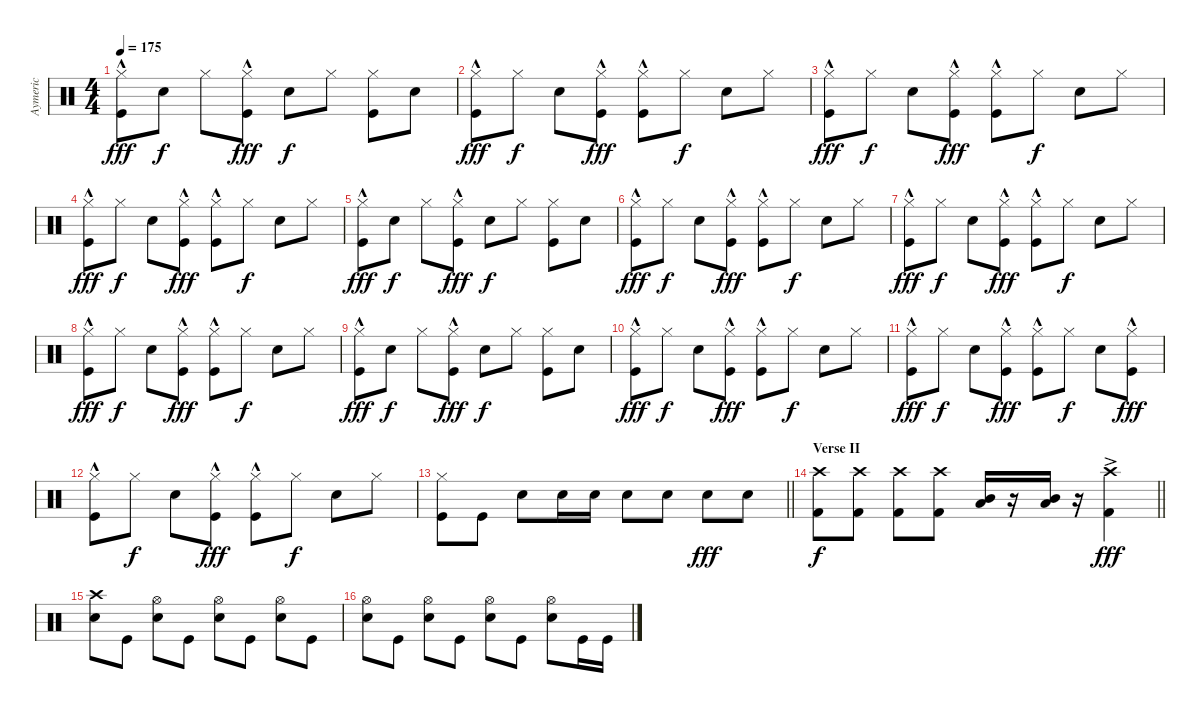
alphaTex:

\track ("Aymeric" "Aymeric") {instrument percussion}
\staff {score}
\articulation defaults
\ts (4 4)
\tempo 175
\clef neutral
\ks c
("Hi-Hat (closed)" "Kick (hit)"{hac}).8{dy fff} "Snare (hit) 2".8{dy f} "Hi-Hat (closed)".8 ("Hi-Hat (closed)" "Kick (hit)"{hac}).8{dy fff} "Snare (hit) 2".8{dy f} "Hi-Hat (closed)".8 ("Hi-Hat (closed)" "Kick (hit)").8 "Snare (hit) 2".8 |
("Hi-Hat (closed)" "Kick (hit)"{hac}).8{dy fff} "Hi-Hat (closed)".8{dy f} "Snare (hit) 2".8 ("Hi-Hat (closed)" "Kick (hit)"{hac}).8{dy fff} ("Hi-Hat (closed)" "Kick (hit)"{hac}).8 "Hi-Hat (closed)".8{dy f} "Snare (hit) 2".8 "Hi-Hat (closed)".8 |
("Hi-Hat (closed)" "Kick (hit)"{hac}).8{dy fff} "Hi-Hat (closed)".8{dy f} "Snare (hit) 2".8 ("Hi-Hat (closed)" "Kick (hit)"{hac}).8{dy fff} ("Hi-Hat (closed)" "Kick (hit)"{hac}).8 "Hi-Hat (closed)".8{dy f} "Snare (hit) 2".8 "Hi-Hat (closed)".8 |
("Hi-Hat (closed)" "Kick (hit)"{hac}).8{dy fff} "Hi-Hat (closed)".8{dy f} "Snare (hit) 2".8 ("Hi-Hat (closed)" "Kick (hit)"{hac}).8{dy fff} ("Hi-Hat (closed)" "Kick (hit)"{hac}).8 "Hi-Hat (closed)".8{dy f} "Snare (hit) 2".8 "Hi-Hat (closed)".8 |
("Hi-Hat (closed)" "Kick (hit)"{hac}).8{dy fff} "Snare (hit) 2".8{dy f} "Hi-Hat (closed)".8 ("Hi-Hat (closed)" "Kick (hit)"{hac}).8{dy fff} "Snare (hit) 2".8{dy f} "Hi-Hat (closed)".8 ("Hi-Hat (closed)" "Kick (hit)").8 "Snare (hit) 2".8 |
("Hi-Hat (closed)" "Kick (hit)"{hac}).8{dy fff} "Hi-Hat (closed)".8{dy f} "Snare (hit) 2".8 ("Hi-Hat (closed)" "Kick (hit)"{hac}).8{dy fff} ("Hi-Hat (closed)" "Kick (hit)"{hac}).8 "Hi-Hat (closed)".8{dy f} "Snare (hit) 2".8 "Hi-Hat (closed)".8 |
("Hi-Hat (closed)" "Kick (hit)"{hac}).8{dy fff} "Hi-Hat (closed)".8{dy f} "Snare (hit) 2".8 ("Hi-Hat (closed)" "Kick (hit)"{hac}).8{dy fff} ("Hi-Hat (closed)" "Kick (hit)"{hac}).8 "Hi-Hat (closed)".8{dy f} "Snare (hit) 2".8 "Hi-Hat (closed)".8 |
("Hi-Hat (closed)" "Kick (hit)"{hac}).8{dy fff} "Hi-Hat (closed)".8{dy f} "Snare (hit) 2".8 ("Hi-Hat (closed)" "Kick (hit)"{hac}).8{dy fff} ("Hi-Hat (closed)" "Kick (hit)"{hac}).8 "Hi-Hat (closed)".8{dy f} "Snare (hit) 2".8 "Hi-Hat (closed)".8 |
("Hi-Hat (closed)" "Kick (hit)"{hac}).8{dy fff} "Snare (hit) 2".8{dy f} "Hi-Hat (closed)".8 ("Hi-Hat (closed)" "Kick (hit)"{hac}).8{dy fff} "Snare (hit) 2".8{dy f} "Hi-Hat (closed)".8 ("Hi-Hat (closed)" "Kick (hit)").8 "Snare (hit) 2".8 |
("Hi-Hat (closed)" "Kick (hit)"{hac}).8{dy fff} "Hi-Hat (closed)".8{dy f} "Snare (hit) 2".8 ("Hi-Hat (closed)" "Kick (hit)"{hac}).8{dy fff} ("Hi-Hat (closed)" "Kick (hit)"{hac}).8 "Hi-Hat (closed)".8{dy f} "Snare (hit) 2".8 "Hi-Hat (closed)".8 |
("Hi-Hat (closed)" "Kick (hit)"{hac}).8{dy fff} "Hi-Hat (closed)".8{dy f} "Snare (hit) 2".8 ("Hi-Hat (closed)" "Kick (hit)"{hac}).8{dy fff} ("Hi-Hat (closed)" "Kick (hit)"{hac}).8 "Hi-Hat (closed)".8{dy f} "Snare (hit) 2".8 ("Hi-Hat (closed)" "Kick (hit)"{hac}).8{dy fff} |
("Hi-Hat (closed)" "Kick (hit)"{hac}).8 "Hi-Hat (closed)".8{dy f} "Snare (hit) 2".8 ("Hi-Hat (closed)" "Kick (hit)"{hac}).8{dy fff} ("Hi-Hat (closed)" "Kick (hit)"{hac}).8 "Hi-Hat (closed)".8{dy f} "Snare (hit) 2".8 "Hi-Hat (closed)".8 |
\barLineRight lightlight
("Hi-Hat (closed)" "Kick (hit)").8 "Kick (hit)".8 "Snare (hit) 2".8 "Snare (hit) 2".16 "Snare (hit) 2".16 "Snare (hit) 2".8 "Snare (hit) 2".8 "Snare (hit) 2".8{dy fff} "Snare (hit) 2".8 |
\section ("" "Verse II")
\barLineRight lightlight
("Crash high (hit)" "Kick (hit) 2").8{dy f} ("Crash high (hit)" "Kick (hit) 2").8 ("Crash high (hit)" "Kick (hit) 2").8 ("Crash high (hit)" "Kick (hit) 2").8 ("Mid Tom (hit)" "Low Floor Tom (hit)").16 r.16 ("Mid Tom (hit)" "Low Floor Tom (hit)").16 r.16 ("Crash high (hit)"{ac} "Kick (hit) 2"{ac}).4{dy fff} |
("Crash high (hit)" "Snare (hit) 2").8 "Kick (hit)".8 ("Hi-Hat (open)" "Snare (hit) 2").8 "Kick (hit)".8 ("Hi-Hat (open)" "Snare (hit) 2").8 "Kick (hit)".8 ("Hi-Hat (open)" "Snare (hit) 2").8 "Kick (hit)".8 |
("Hi-Hat (open)" "Snare (hit) 2").8 "Kick (hit)".8 ("Hi-Hat (open)" "Snare (hit) 2").8 "Kick (hit)".8 ("Hi-Hat (open)" "Snare (hit) 2").8 "Kick (hit)".8 ("Hi-Hat (open)" "Snare (hit) 2").8 "Kick (hit)".16 "Kick (hit)".16
